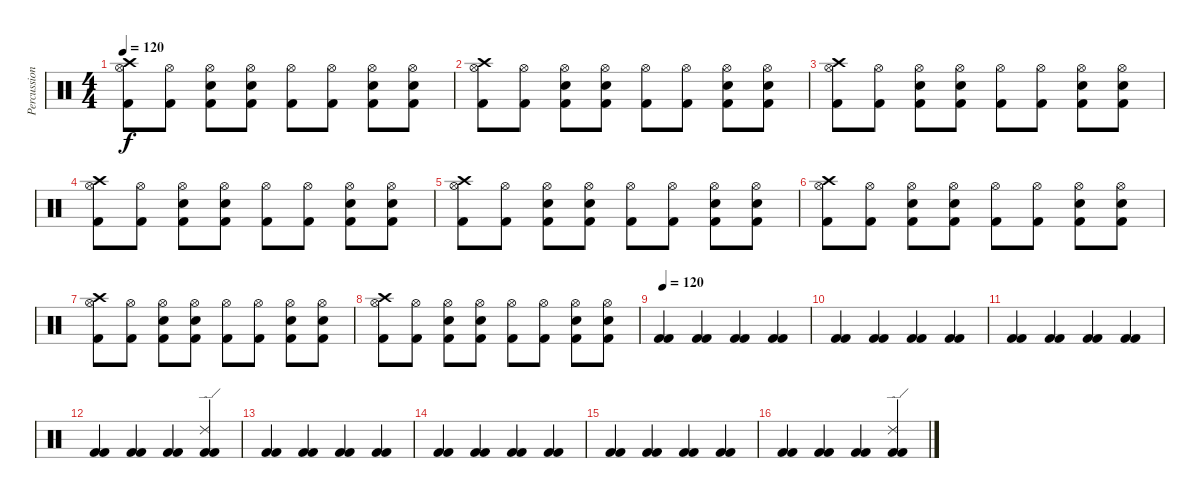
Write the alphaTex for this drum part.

\track ("Percussioni" "Percussion") {instrument percussion}
\staff {score}
\articulation defaults
\ts (4 4)
\tempo 120
\clef neutral
\ks c
("Hi-Hat (open)" "Kick (hit) 2" "Crash high (hit)").8{dy f} ("Hi-Hat (open)" "Kick (hit) 2").8 ("Hi-Hat (open)" "Kick (hit) 2" "Electric Snare (hit)").8 ("Hi-Hat (open)" "Kick (hit) 2" "Electric Snare (hit)").8 ("Hi-Hat (open)" "Kick (hit) 2").8 ("Hi-Hat (open)" "Kick (hit) 2").8 ("Hi-Hat (open)" "Kick (hit) 2" "Electric Snare (hit)").8 ("Hi-Hat (open)" "Kick (hit) 2" "Electric Snare (hit)").8 |
("Hi-Hat (open)" "Kick (hit) 2" "Crash high (hit)").8 ("Hi-Hat (open)" "Kick (hit) 2").8 ("Hi-Hat (open)" "Kick (hit) 2" "Electric Snare (hit)").8 ("Hi-Hat (open)" "Kick (hit) 2" "Electric Snare (hit)").8 ("Hi-Hat (open)" "Kick (hit) 2").8 ("Hi-Hat (open)" "Kick (hit) 2").8 ("Hi-Hat (open)" "Kick (hit) 2" "Electric Snare (hit)").8 ("Hi-Hat (open)" "Kick (hit) 2" "Electric Snare (hit)").8 |
("Hi-Hat (open)" "Kick (hit) 2" "Crash high (hit)").8 ("Hi-Hat (open)" "Kick (hit) 2").8 ("Hi-Hat (open)" "Kick (hit) 2" "Electric Snare (hit)").8 ("Hi-Hat (open)" "Kick (hit) 2" "Electric Snare (hit)").8 ("Hi-Hat (open)" "Kick (hit) 2").8 ("Hi-Hat (open)" "Kick (hit) 2").8 ("Hi-Hat (open)" "Kick (hit) 2" "Electric Snare (hit)").8 ("Hi-Hat (open)" "Kick (hit) 2" "Electric Snare (hit)").8 |
("Hi-Hat (open)" "Kick (hit) 2" "Crash high (hit)").8 ("Hi-Hat (open)" "Kick (hit) 2").8 ("Hi-Hat (open)" "Kick (hit) 2" "Electric Snare (hit)").8 ("Hi-Hat (open)" "Kick (hit) 2" "Electric Snare (hit)").8 ("Hi-Hat (open)" "Kick (hit) 2").8 ("Hi-Hat (open)" "Kick (hit) 2").8 ("Hi-Hat (open)" "Kick (hit) 2" "Electric Snare (hit)").8 ("Hi-Hat (open)" "Kick (hit) 2" "Electric Snare (hit)").8 |
("Hi-Hat (open)" "Kick (hit) 2" "Crash high (hit)").8 ("Hi-Hat (open)" "Kick (hit) 2").8 ("Hi-Hat (open)" "Kick (hit) 2" "Electric Snare (hit)").8 ("Hi-Hat (open)" "Kick (hit) 2" "Electric Snare (hit)").8 ("Hi-Hat (open)" "Kick (hit) 2").8 ("Hi-Hat (open)" "Kick (hit) 2").8 ("Hi-Hat (open)" "Kick (hit) 2" "Electric Snare (hit)").8 ("Hi-Hat (open)" "Kick (hit) 2" "Electric Snare (hit)").8 |
("Hi-Hat (open)" "Kick (hit) 2" "Crash high (hit)").8 ("Hi-Hat (open)" "Kick (hit) 2").8 ("Hi-Hat (open)" "Kick (hit) 2" "Electric Snare (hit)").8 ("Hi-Hat (open)" "Kick (hit) 2" "Electric Snare (hit)").8 ("Hi-Hat (open)" "Kick (hit) 2").8 ("Hi-Hat (open)" "Kick (hit) 2").8 ("Hi-Hat (open)" "Kick (hit) 2" "Electric Snare (hit)").8 ("Hi-Hat (open)" "Kick (hit) 2" "Electric Snare (hit)").8 |
("Hi-Hat (open)" "Kick (hit) 2" "Crash high (hit)").8 ("Hi-Hat (open)" "Kick (hit) 2").8 ("Hi-Hat (open)" "Kick (hit) 2" "Electric Snare (hit)").8 ("Hi-Hat (open)" "Kick (hit) 2" "Electric Snare (hit)").8 ("Hi-Hat (open)" "Kick (hit) 2").8 ("Hi-Hat (open)" "Kick (hit) 2").8 ("Hi-Hat (open)" "Kick (hit) 2" "Electric Snare (hit)").8 ("Hi-Hat (open)" "Kick (hit) 2" "Electric Snare (hit)").8 |
("Hi-Hat (open)" "Kick (hit) 2" "Crash high (hit)").8 ("Hi-Hat (open)" "Kick (hit) 2").8 ("Hi-Hat (open)" "Kick (hit) 2" "Electric Snare (hit)").8 ("Hi-Hat (open)" "Kick (hit) 2" "Electric Snare (hit)").8 ("Hi-Hat (open)" "Kick (hit) 2").8 ("Hi-Hat (open)" "Kick (hit) 2").8 ("Hi-Hat (open)" "Kick (hit) 2" "Electric Snare (hit)").8 ("Hi-Hat (open)" "Kick (hit) 2" "Electric Snare (hit)").8 |
\tempo 120
("Kick (hit) 2" "Kick (hit) 2").4 ("Kick (hit) 2" "Kick (hit) 2").4 ("Kick (hit) 2" "Kick (hit) 2").4 ("Kick (hit) 2" "Kick (hit) 2").4 |
("Kick (hit) 2" "Kick (hit) 2").4 ("Kick (hit) 2" "Kick (hit) 2").4 ("Kick (hit) 2" "Kick (hit) 2").4 ("Kick (hit) 2" "Kick (hit) 2").4 |
("Kick (hit) 2" "Kick (hit) 2").4 ("Kick (hit) 2" "Kick (hit) 2").4 ("Kick (hit) 2" "Kick (hit) 2").4 ("Kick (hit) 2" "Kick (hit) 2").4 |
("Kick (hit) 2" "Kick (hit) 2").4 ("Kick (hit) 2" "Kick (hit) 2").4 ("Kick (hit) 2" "Kick (hit) 2").4 ("Kick (hit) 2" "Kick (hit) 2" "Ride (edge) 2").4 |
("Kick (hit) 2" "Kick (hit) 2").4 ("Kick (hit) 2" "Kick (hit) 2").4 ("Kick (hit) 2" "Kick (hit) 2").4 ("Kick (hit) 2" "Kick (hit) 2").4 |
("Kick (hit) 2" "Kick (hit) 2").4 ("Kick (hit) 2" "Kick (hit) 2").4 ("Kick (hit) 2" "Kick (hit) 2").4 ("Kick (hit) 2" "Kick (hit) 2").4 |
("Kick (hit) 2" "Kick (hit) 2").4 ("Kick (hit) 2" "Kick (hit) 2").4 ("Kick (hit) 2" "Kick (hit) 2").4 ("Kick (hit) 2" "Kick (hit) 2").4 |
("Kick (hit) 2" "Kick (hit) 2").4 ("Kick (hit) 2" "Kick (hit) 2").4 ("Kick (hit) 2" "Kick (hit) 2").4 ("Kick (hit) 2" "Kick (hit) 2" "Ride (edge) 2").4
